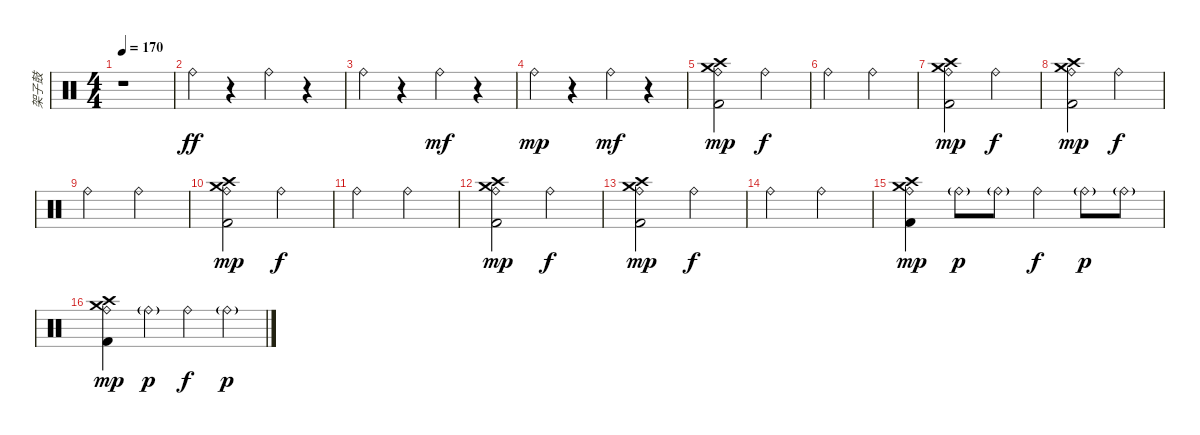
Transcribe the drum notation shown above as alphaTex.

\track ("架子鼓" "架子鼓") {instrument percussion}
\staff {score}
\articulation defaults
\ts (4 4)
\tempo 170
\clef neutral
\ks c
r.1{dy ff} |
"Ride (bell)".4 r.4 "Ride (bell)".4 r.4 |
"Ride (bell)".4 r.4 "Ride (bell)".4{dy mf} r.4 |
"Ride (bell)".4{dy mp} r.4 "Ride (bell)".4{dy mf} r.4 |
("Ride (bell)" "Kick (hit) 2" "Crash medium (hit)" "Crash high (hit)").2{dy mp} "Ride (bell)".2{dy f} |
"Ride (bell)".2 "Ride (bell)".2 |
("Ride (bell)" "Kick (hit) 2" "Crash medium (hit)" "Crash high (hit)").2{dy mp} "Ride (bell)".2{dy f} |
("Ride (bell)" "Kick (hit) 2" "Crash medium (hit)" "Crash high (hit)").2{dy mp} "Ride (bell)".2{dy f} |
"Ride (bell)".2 "Ride (bell)".2 |
("Ride (bell)" "Kick (hit) 2" "Crash medium (hit)" "Crash high (hit)").2{dy mp} "Ride (bell)".2{dy f} |
"Ride (bell)".2 "Ride (bell)".2 |
("Ride (bell)" "Kick (hit) 2" "Crash medium (hit)" "Crash high (hit)").2{dy mp} "Ride (bell)".2{dy f} |
("Ride (bell)" "Kick (hit) 2" "Crash medium (hit)" "Crash high (hit)").2{dy mp} "Ride (bell)".2{dy f} |
"Ride (bell)".2 "Ride (bell)".2 |
("Ride (bell)" "Kick (hit) 2" "Crash medium (hit)" "Crash high (hit)").4{dy mp} "Ride (bell)"{g}.8{dy p} "Ride (bell)"{g}.8 "Ride (bell)".4{dy f} "Ride (bell)"{g}.8{dy p} "Ride (bell)"{g}.8 |
("Ride (bell)" "Kick (hit) 2" "Crash medium (hit)" "Crash high (hit)").4{dy mp} "Ride (bell)"{g}.4{dy p} "Ride (bell)".4{dy f} "Ride (bell)"{g}.4{dy p}
